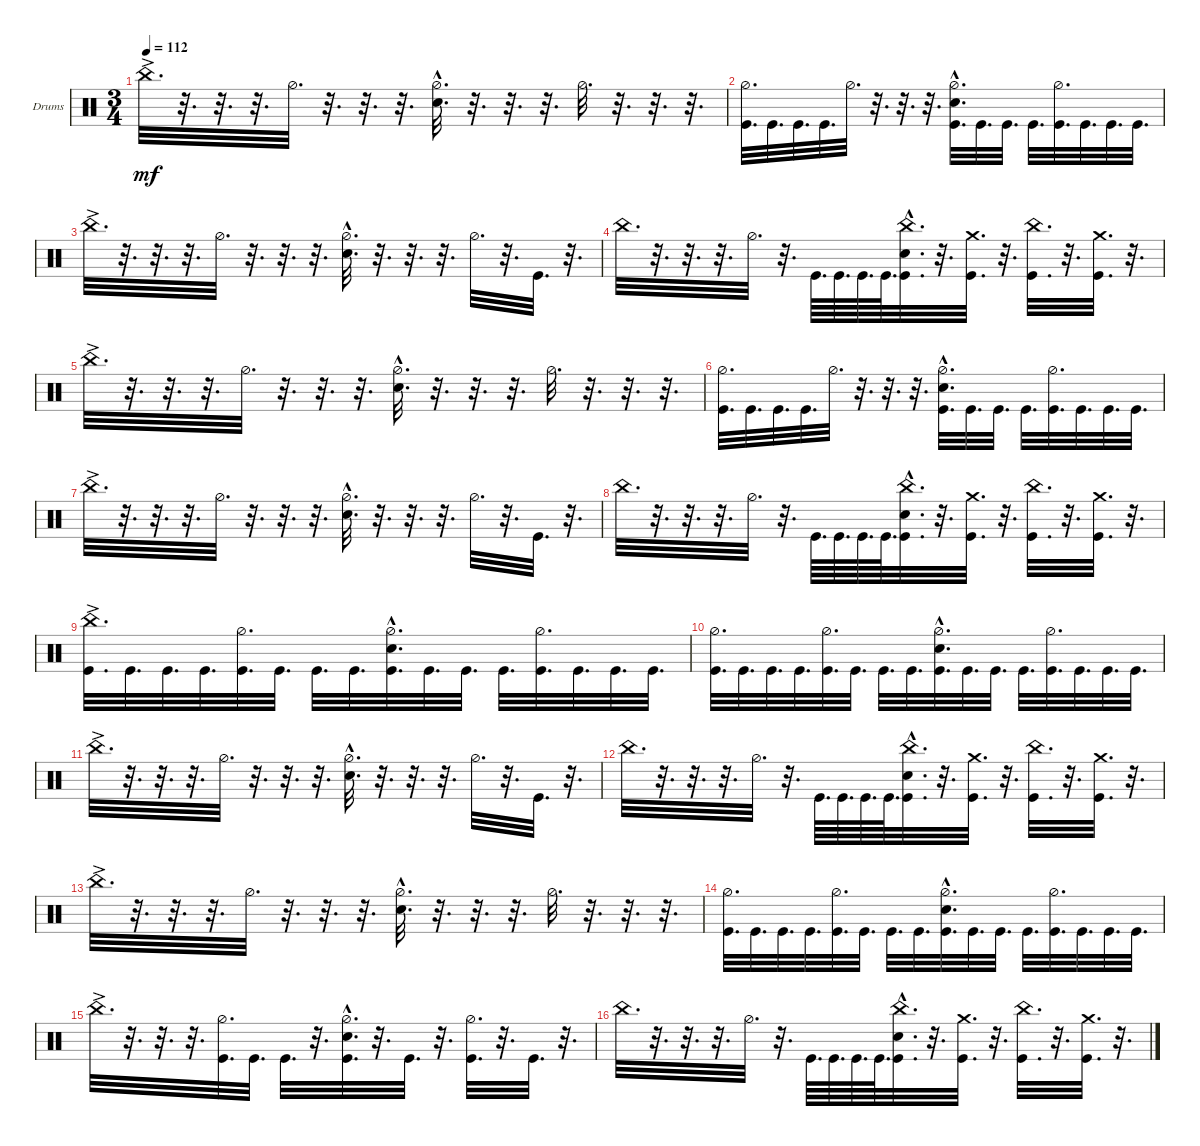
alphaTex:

\bracketExtendMode groupsimilarinstruments
\firstSystemTrackNameOrientation horizontal
\otherSystemsTrackNameOrientation horizontal
\track ("Drumkit" "Drums") {instrument percussion}
\staff {score}
\articulation defaults
\ts (3 4)
\tempo 112
\clef neutral
\ks c "China (hit)"{ac}.32{d dy mf}
r.32{d} r.32{d} r.32{d} "Hi-Hat (half)".32{d} r.32{d} r.32{d} r.32{d} ("Snare (hit) 2"{hac} "Hi-Hat (half)").32{d} r.32{d} r.32{d} r.32{d} "Hi-Hat (half)".32{d} r.32{d} r.32{d} r.32{d} |
("Kick (hit)" "Hi-Hat (half)").32{d} "Kick (hit)".32{d} "Kick (hit)".32{d} "Kick (hit)".32{d} "Hi-Hat (half)".32{d} r.32{d} r.32{d} r.32{d} ("Snare (hit) 2"{hac} "Hi-Hat (half)" "Kick (hit)").32{d} "Kick (hit)".32{d} "Kick (hit)".32{d} "Kick (hit)".32{d} ("Hi-Hat (half)" "Kick (hit)").32{d} "Kick (hit)".32{d} "Kick (hit)".32{d} "Kick (hit)".32{d} |
"China (hit)"{ac}.32{d} r.32{d} r.32{d} r.32{d} "Hi-Hat (half)".32{d} r.32{d} r.32{d} r.32{d} ("Snare (hit) 2"{hac} "Hi-Hat (half)").32{d} r.32{d} r.32{d} r.32{d} "Hi-Hat (half)".32{d} r.32{d} "Kick (hit)".32{d} r.32{d} |
"China (hit)".32{d} r.32{d} r.32{d} r.32{d} "Hi-Hat (half)".32{d} r.32{d} "Kick (hit)".64{d} "Kick (hit)".64{d} "Kick (hit)".64{d} "Kick (hit)".64{d} ("China (hit)" "Kick (hit)" "Snare (hit) 2"{hac}).32{d} r.32{d} ("Kick (hit)" "Crash medium (hit)").32{d} r.32{d} ("China (hit)" "Kick (hit)").32{d} r.32{d} ("Kick (hit)" "Crash medium (hit)").32{d} r.32{d} |
"China (hit)"{ac}.32{d} r.32{d} r.32{d} r.32{d} "Hi-Hat (half)".32{d} r.32{d} r.32{d} r.32{d} ("Snare (hit) 2"{hac} "Hi-Hat (half)").32{d} r.32{d} r.32{d} r.32{d} "Hi-Hat (half)".32{d} r.32{d} r.32{d} r.32{d} |
("Kick (hit)" "Hi-Hat (half)").32{d} "Kick (hit)".32{d} "Kick (hit)".32{d} "Kick (hit)".32{d} "Hi-Hat (half)".32{d} r.32{d} r.32{d} r.32{d} ("Snare (hit) 2"{hac} "Hi-Hat (half)" "Kick (hit)").32{d} "Kick (hit)".32{d} "Kick (hit)".32{d} "Kick (hit)".32{d} ("Hi-Hat (half)" "Kick (hit)").32{d} "Kick (hit)".32{d} "Kick (hit)".32{d} "Kick (hit)".32{d} |
"China (hit)"{ac}.32{d} r.32{d} r.32{d} r.32{d} "Hi-Hat (half)".32{d} r.32{d} r.32{d} r.32{d} ("Snare (hit) 2"{hac} "Hi-Hat (half)").32{d} r.32{d} r.32{d} r.32{d} "Hi-Hat (half)".32{d} r.32{d} "Kick (hit)".32{d} r.32{d} |
"China (hit)".32{d} r.32{d} r.32{d} r.32{d} "Hi-Hat (half)".32{d} r.32{d} "Kick (hit)".64{d} "Kick (hit)".64{d} "Kick (hit)".64{d} "Kick (hit)".64{d} ("China (hit)" "Kick (hit)" "Snare (hit) 2"{hac}).32{d} r.32{d} ("Kick (hit)" "Crash medium (hit)").32{d} r.32{d} ("China (hit)" "Kick (hit)").32{d} r.32{d} ("Kick (hit)" "Crash medium (hit)").32{d} r.32{d} |
("Kick (hit)" "China (hit)"{ac}).32{d} "Kick (hit)".32{d} "Kick (hit)".32{d} "Kick (hit)".32{d} ("Kick (hit)" "Hi-Hat (half)").32{d} "Kick (hit)".32{d} "Kick (hit)".32{d} "Kick (hit)".32{d} ("Kick (hit)" "Snare (hit) 2"{hac} "Hi-Hat (half)").32{d} "Kick (hit)".32{d} "Kick (hit)".32{d} "Kick (hit)".32{d} ("Kick (hit)" "Hi-Hat (half)").32{d} "Kick (hit)".32{d} "Kick (hit)".32{d} "Kick (hit)".32{d} |
("Kick (hit)" "Hi-Hat (half)").32{d} "Kick (hit)".32{d} "Kick (hit)".32{d} "Kick (hit)".32{d} ("Kick (hit)" "Hi-Hat (half)").32{d} "Kick (hit)".32{d} "Kick (hit)".32{d} "Kick (hit)".32{d} ("Kick (hit)" "Snare (hit) 2"{hac} "Hi-Hat (half)").32{d} "Kick (hit)".32{d} "Kick (hit)".32{d} "Kick (hit)".32{d} ("Kick (hit)" "Hi-Hat (half)").32{d} "Kick (hit)".32{d} "Kick (hit)".32{d} "Kick (hit)".32{d} |
"China (hit)"{ac}.32{d} r.32{d} r.32{d} r.32{d} "Hi-Hat (half)".32{d} r.32{d} r.32{d} r.32{d} ("Snare (hit) 2"{hac} "Hi-Hat (half)").32{d} r.32{d} r.32{d} r.32{d} "Hi-Hat (half)".32{d} r.32{d} "Kick (hit)".32{d} r.32{d} |
"China (hit)".32{d} r.32{d} r.32{d} r.32{d} "Hi-Hat (half)".32{d} r.32{d} "Kick (hit)".64{d} "Kick (hit)".64{d} "Kick (hit)".64{d} "Kick (hit)".64{d} ("China (hit)" "Kick (hit)" "Snare (hit) 2"{hac}).32{d} r.32{d} ("Kick (hit)" "Crash medium (hit)").32{d} r.32{d} ("China (hit)" "Kick (hit)").32{d} r.32{d} ("Kick (hit)" "Crash medium (hit)").32{d} r.32{d} |
"China (hit)"{ac}.32{d} r.32{d} r.32{d} r.32{d} "Hi-Hat (half)".32{d} r.32{d} r.32{d} r.32{d} ("Snare (hit) 2"{hac} "Hi-Hat (half)").32{d} r.32{d} r.32{d} r.32{d} "Hi-Hat (half)".32{d} r.32{d} r.32{d} r.32{d} |
("Kick (hit)" "Hi-Hat (half)").32{d} "Kick (hit)".32{d} "Kick (hit)".32{d} "Kick (hit)".32{d} ("Kick (hit)" "Hi-Hat (half)").32{d} "Kick (hit)".32{d} "Kick (hit)".32{d} "Kick (hit)".32{d} ("Kick (hit)" "Snare (hit) 2"{hac} "Hi-Hat (half)").32{d} "Kick (hit)".32{d} "Kick (hit)".32{d} "Kick (hit)".32{d} ("Kick (hit)" "Hi-Hat (half)").32{d} "Kick (hit)".32{d} "Kick (hit)".32{d} "Kick (hit)".32{d} |
"China (hit)"{ac}.32{d} r.32{d} r.32{d} r.32{d} ("Hi-Hat (half)" "Kick (hit)").32{d} "Kick (hit)".32{d} "Kick (hit)".32{d} r.32{d} ("Snare (hit) 2"{hac} "Hi-Hat (half)" "Kick (hit)").32{d} r.32{d} "Kick (hit)".32{d} r.32{d} ("Hi-Hat (half)" "Kick (hit)").32{d} r.32{d} "Kick (hit)".32{d} r.32{d} |
"China (hit)".32{d} r.32{d} r.32{d} r.32{d} "Hi-Hat (half)".32{d} r.32{d} "Kick (hit)".64{d} "Kick (hit)".64{d} "Kick (hit)".64{d} "Kick (hit)".64{d} ("China (hit)" "Kick (hit)" "Snare (hit) 2"{hac}).32{d} r.32{d} ("Kick (hit)" "Crash medium (hit)").32{d} r.32{d} ("China (hit)" "Kick (hit)").32{d} r.32{d} ("Kick (hit)" "Crash medium (hit)").32{d} r.32{d}
